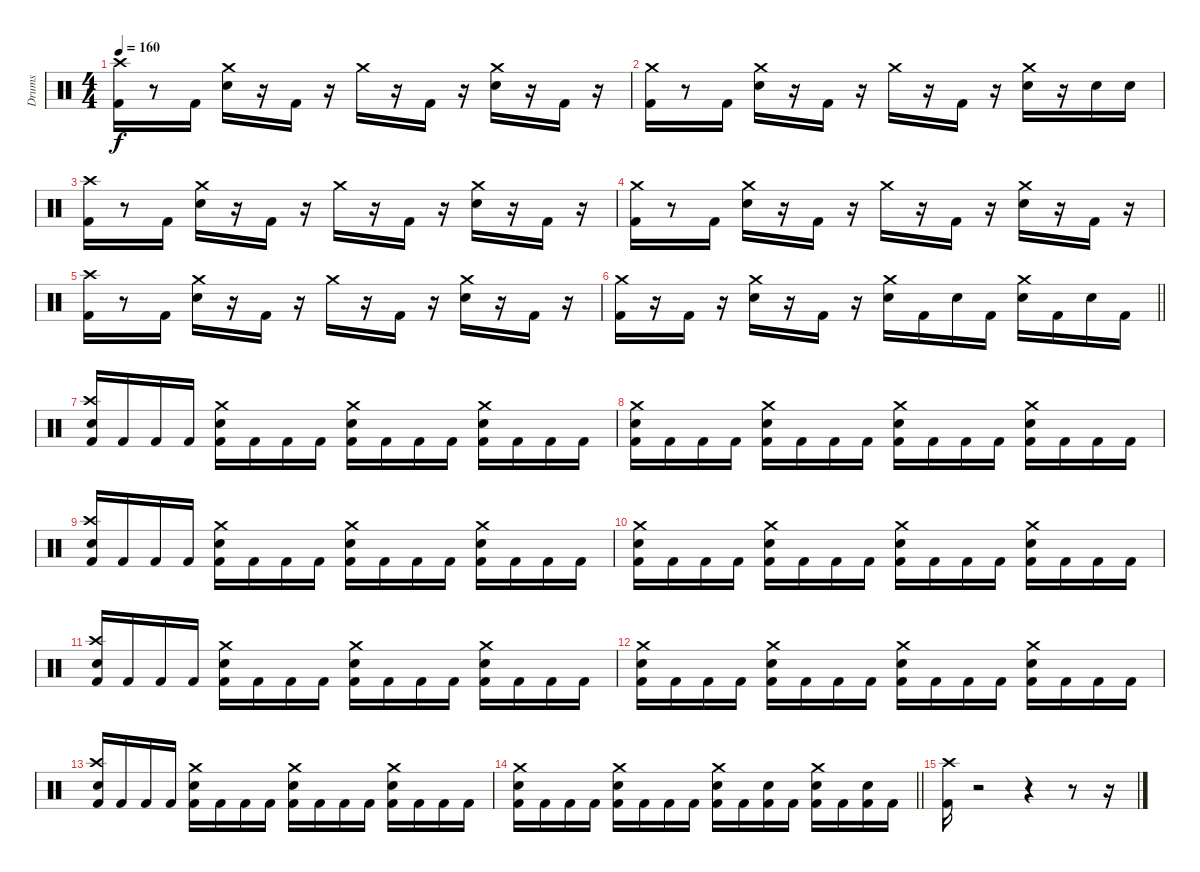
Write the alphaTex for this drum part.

\track ("Drums" "Drums") {instrument percussion}
\staff {score}
\articulation defaults
\ts (4 4)
\tempo 160
\clef neutral
\ks c
("Kick (hit) 2" "Crash high (hit)").16{dy f} r.8 "Kick (hit) 2".16 ("Snare (hit) 2" "Crash medium (hit)").16 r.16 "Kick (hit) 2".16 r.16 "Crash medium (hit)".16 r.16 "Kick (hit) 2".16 r.16 ("Snare (hit) 2" "Crash medium (hit)").16 r.16 "Kick (hit) 2".16 r.16 |
("Kick (hit) 2" "Crash medium (hit)").16 r.8 "Kick (hit) 2".16 ("Snare (hit) 2" "Crash medium (hit)").16 r.16 "Kick (hit) 2".16 r.16 "Crash medium (hit)".16 r.16 "Kick (hit) 2".16 r.16 ("Snare (hit) 2" "Crash medium (hit)").16 r.16 "Snare (hit) 2".16 "Snare (hit) 2".16 |
("Kick (hit) 2" "Crash high (hit)").16 r.8 "Kick (hit) 2".16 ("Snare (hit) 2" "Crash medium (hit)").16 r.16 "Kick (hit) 2".16 r.16 "Crash medium (hit)".16 r.16 "Kick (hit) 2".16 r.16 ("Snare (hit) 2" "Crash medium (hit)").16 r.16 "Kick (hit) 2".16 r.16 |
("Kick (hit) 2" "Crash medium (hit)").16 r.8 "Kick (hit) 2".16 ("Snare (hit) 2" "Crash medium (hit)").16 r.16 "Kick (hit) 2".16 r.16 "Crash medium (hit)".16 r.16 "Kick (hit) 2".16 r.16 ("Snare (hit) 2" "Crash medium (hit)").16 r.16 "Kick (hit) 2".16 r.16 |
("Kick (hit) 2" "Crash high (hit)").16 r.8 "Kick (hit) 2".16 ("Snare (hit) 2" "Crash medium (hit)").16 r.16 "Kick (hit) 2".16 r.16 "Crash medium (hit)".16 r.16 "Kick (hit) 2".16 r.16 ("Snare (hit) 2" "Crash medium (hit)").16 r.16 "Kick (hit) 2".16 r.16 |
\barLineRight lightlight
("Kick (hit) 2" "Crash medium (hit)").16 r.16 "Kick (hit) 2".16 r.16 ("Snare (hit) 2" "Crash medium (hit)").16 r.16 "Kick (hit) 2".16 r.16 ("Snare (hit) 2" "Crash medium (hit)").16 "Kick (hit) 2".16 "Snare (hit) 2".16 "Kick (hit) 2".16 ("Snare (hit) 2" "Crash medium (hit)").16 "Kick (hit) 2".16 "Snare (hit) 2".16 "Kick (hit) 2".16 |
("Kick (hit) 2" "Snare (hit) 2" "Crash high (hit)").16 "Kick (hit) 2".16 "Kick (hit) 2".16 "Kick (hit) 2".16 ("Kick (hit) 2" "Snare (hit) 2" "Crash medium (hit)").16 "Kick (hit) 2".16 "Kick (hit) 2".16 "Kick (hit) 2".16 ("Kick (hit) 2" "Snare (hit) 2" "Crash medium (hit)").16 "Kick (hit) 2".16 "Kick (hit) 2".16 "Kick (hit) 2".16 ("Kick (hit) 2" "Snare (hit) 2" "Crash medium (hit)").16 "Kick (hit) 2".16 "Kick (hit) 2".16 "Kick (hit) 2".16 |
("Kick (hit) 2" "Snare (hit) 2" "Crash medium (hit)").16 "Kick (hit) 2".16 "Kick (hit) 2".16 "Kick (hit) 2".16 ("Kick (hit) 2" "Snare (hit) 2" "Crash medium (hit)").16 "Kick (hit) 2".16 "Kick (hit) 2".16 "Kick (hit) 2".16 ("Kick (hit) 2" "Snare (hit) 2" "Crash medium (hit)").16 "Kick (hit) 2".16 "Kick (hit) 2".16 "Kick (hit) 2".16 ("Kick (hit) 2" "Snare (hit) 2" "Crash medium (hit)").16 "Kick (hit) 2".16 "Kick (hit) 2".16 "Kick (hit) 2".16 |
("Kick (hit) 2" "Snare (hit) 2" "Crash high (hit)").16 "Kick (hit) 2".16 "Kick (hit) 2".16 "Kick (hit) 2".16 ("Kick (hit) 2" "Snare (hit) 2" "Crash medium (hit)").16 "Kick (hit) 2".16 "Kick (hit) 2".16 "Kick (hit) 2".16 ("Kick (hit) 2" "Snare (hit) 2" "Crash medium (hit)").16 "Kick (hit) 2".16 "Kick (hit) 2".16 "Kick (hit) 2".16 ("Kick (hit) 2" "Snare (hit) 2" "Crash medium (hit)").16 "Kick (hit) 2".16 "Kick (hit) 2".16 "Kick (hit) 2".16 |
("Kick (hit) 2" "Snare (hit) 2" "Crash medium (hit)").16 "Kick (hit) 2".16 "Kick (hit) 2".16 "Kick (hit) 2".16 ("Kick (hit) 2" "Snare (hit) 2" "Crash medium (hit)").16 "Kick (hit) 2".16 "Kick (hit) 2".16 "Kick (hit) 2".16 ("Kick (hit) 2" "Snare (hit) 2" "Crash medium (hit)").16 "Kick (hit) 2".16 "Kick (hit) 2".16 "Kick (hit) 2".16 ("Kick (hit) 2" "Snare (hit) 2" "Crash medium (hit)").16 "Kick (hit) 2".16 "Kick (hit) 2".16 "Kick (hit) 2".16 |
("Kick (hit) 2" "Snare (hit) 2" "Crash high (hit)").16 "Kick (hit) 2".16 "Kick (hit) 2".16 "Kick (hit) 2".16 ("Kick (hit) 2" "Snare (hit) 2" "Crash medium (hit)").16 "Kick (hit) 2".16 "Kick (hit) 2".16 "Kick (hit) 2".16 ("Kick (hit) 2" "Snare (hit) 2" "Crash medium (hit)").16 "Kick (hit) 2".16 "Kick (hit) 2".16 "Kick (hit) 2".16 ("Kick (hit) 2" "Snare (hit) 2" "Crash medium (hit)").16 "Kick (hit) 2".16 "Kick (hit) 2".16 "Kick (hit) 2".16 |
("Kick (hit) 2" "Snare (hit) 2" "Crash medium (hit)").16 "Kick (hit) 2".16 "Kick (hit) 2".16 "Kick (hit) 2".16 ("Kick (hit) 2" "Snare (hit) 2" "Crash medium (hit)").16 "Kick (hit) 2".16 "Kick (hit) 2".16 "Kick (hit) 2".16 ("Kick (hit) 2" "Snare (hit) 2" "Crash medium (hit)").16 "Kick (hit) 2".16 "Kick (hit) 2".16 "Kick (hit) 2".16 ("Kick (hit) 2" "Snare (hit) 2" "Crash medium (hit)").16 "Kick (hit) 2".16 "Kick (hit) 2".16 "Kick (hit) 2".16 |
("Kick (hit) 2" "Snare (hit) 2" "Crash high (hit)").16 "Kick (hit) 2".16 "Kick (hit) 2".16 "Kick (hit) 2".16 ("Kick (hit) 2" "Snare (hit) 2" "Crash medium (hit)").16 "Kick (hit) 2".16 "Kick (hit) 2".16 "Kick (hit) 2".16 ("Kick (hit) 2" "Snare (hit) 2" "Crash medium (hit)").16 "Kick (hit) 2".16 "Kick (hit) 2".16 "Kick (hit) 2".16 ("Kick (hit) 2" "Snare (hit) 2" "Crash medium (hit)").16 "Kick (hit) 2".16 "Kick (hit) 2".16 "Kick (hit) 2".16 |
\barLineRight lightlight
("Kick (hit) 2" "Snare (hit) 2" "Crash medium (hit)").16 "Kick (hit) 2".16 "Kick (hit) 2".16 "Kick (hit) 2".16 ("Kick (hit) 2" "Snare (hit) 2" "Crash medium (hit)").16 "Kick (hit) 2".16 "Kick (hit) 2".16 "Kick (hit) 2".16 ("Kick (hit) 2" "Snare (hit) 2" "Crash medium (hit)").16 "Kick (hit) 2".16 ("Kick (hit) 2" "Snare (hit) 2").16 "Kick (hit) 2".16 ("Kick (hit) 2" "Snare (hit) 2" "Crash medium (hit)").16 "Kick (hit) 2".16 ("Kick (hit) 2" "Snare (hit) 2").16 "Kick (hit) 2".16 |
\section ("" " ")
("Kick (hit) 2" "Crash high (hit)").16 r.2 r.4 r.8 r.16
